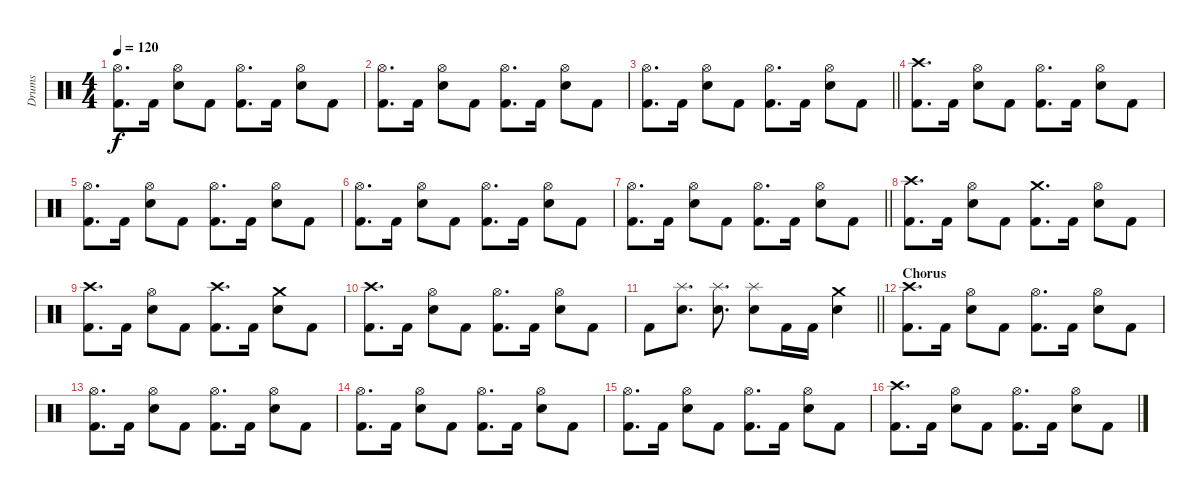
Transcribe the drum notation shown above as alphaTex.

\track ("Drums" "Drums") {instrument percussion}
\staff {score}
\articulation defaults
\ts (4 4)
\tempo 120
\clef neutral
\ks c
("Hi-Hat (open)" "Kick (hit) 2").8{d dy f} "Kick (hit) 2".16 ("Hi-Hat (open)" "Snare (hit) 2").8 "Kick (hit) 2".8 ("Hi-Hat (open)" "Kick (hit) 2").8{d} "Kick (hit) 2".16 ("Hi-Hat (open)" "Snare (hit) 2").8 "Kick (hit) 2".8 |
("Hi-Hat (open)" "Kick (hit) 2").8{d} "Kick (hit) 2".16 ("Hi-Hat (open)" "Snare (hit) 2").8 "Kick (hit) 2".8 ("Hi-Hat (open)" "Kick (hit) 2").8{d} "Kick (hit) 2".16 ("Hi-Hat (open)" "Snare (hit) 2").8 "Kick (hit) 2".8 |
\barLineRight lightlight
("Hi-Hat (open)" "Kick (hit) 2").8{d} "Kick (hit) 2".16 ("Hi-Hat (open)" "Snare (hit) 2").8 "Kick (hit) 2".8 ("Hi-Hat (open)" "Kick (hit) 2").8{d} "Kick (hit) 2".16 ("Hi-Hat (open)" "Snare (hit) 2").8 "Kick (hit) 2".8 |
("Crash high (hit)" "Kick (hit) 2").8{d} "Kick (hit) 2".16 ("Hi-Hat (open)" "Snare (hit) 2").8 "Kick (hit) 2".8 ("Hi-Hat (open)" "Kick (hit) 2").8{d} "Kick (hit) 2".16 ("Hi-Hat (open)" "Snare (hit) 2").8 "Kick (hit) 2".8 |
("Hi-Hat (open)" "Kick (hit) 2").8{d} "Kick (hit) 2".16 ("Hi-Hat (open)" "Snare (hit) 2").8 "Kick (hit) 2".8 ("Hi-Hat (open)" "Kick (hit) 2").8{d} "Kick (hit) 2".16 ("Hi-Hat (open)" "Snare (hit) 2").8 "Kick (hit) 2".8 |
("Hi-Hat (open)" "Kick (hit) 2").8{d} "Kick (hit) 2".16 ("Hi-Hat (open)" "Snare (hit) 2").8 "Kick (hit) 2".8 ("Hi-Hat (open)" "Kick (hit) 2").8{d} "Kick (hit) 2".16 ("Hi-Hat (open)" "Snare (hit) 2").8 "Kick (hit) 2".8 |
\barLineRight lightlight
("Hi-Hat (open)" "Kick (hit) 2").8{d} "Kick (hit) 2".16 ("Hi-Hat (open)" "Snare (hit) 2").8 "Kick (hit) 2".8 ("Hi-Hat (open)" "Kick (hit) 2").8{d} "Kick (hit) 2".16 ("Hi-Hat (open)" "Snare (hit) 2").8 "Kick (hit) 2".8 |
("Crash high (hit)" "Kick (hit) 2").8{d} "Kick (hit) 2".16 ("Hi-Hat (open)" "Snare (hit) 2").8 "Kick (hit) 2".8 ("Crash medium (hit)" "Kick (hit) 2").8{d} "Kick (hit) 2".16 ("Hi-Hat (open)" "Snare (hit) 2").8 "Kick (hit) 2".8 |
("Crash high (hit)" "Kick (hit) 2").8{d} "Kick (hit) 2".16 ("Hi-Hat (open)" "Snare (hit) 2").8 "Kick (hit) 2".8 ("Crash high (hit)" "Kick (hit) 2").8{d} "Kick (hit) 2".16 ("Crash medium (hit)" "Snare (hit) 2").8 "Kick (hit) 2".8 |
("Crash high (hit)" "Kick (hit) 2").8{d} "Kick (hit) 2".16 ("Hi-Hat (open)" "Snare (hit) 2").8 "Kick (hit) 2".8 ("Hi-Hat (open)" "Kick (hit) 2").8{d} "Kick (hit) 2".16 ("Hi-Hat (open)" "Snare (hit) 2").8 "Kick (hit) 2".8 |
\barLineRight lightlight "Kick (hit) 2".8
("Splash (hit)" "Snare (hit) 2").8{d} ("Splash (hit)" "Snare (hit) 2").8{d} ("Splash (hit)" "Snare (hit) 2").8 "Kick (hit) 2".16 "Kick (hit) 2".16 ("Crash medium (hit)" "Snare (hit) 2").4 |
\section ("" "Chorus")
("Crash high (hit)" "Kick (hit) 2").8{d} "Kick (hit) 2".16 ("Hi-Hat (open)" "Snare (hit) 2").8 "Kick (hit) 2".8 ("Hi-Hat (open)" "Kick (hit) 2").8{d} "Kick (hit) 2".16 ("Hi-Hat (open)" "Snare (hit) 2").8 "Kick (hit) 2".8 |
("Hi-Hat (open)" "Kick (hit) 2").8{d} "Kick (hit) 2".16 ("Hi-Hat (open)" "Snare (hit) 2").8 "Kick (hit) 2".8 ("Hi-Hat (open)" "Kick (hit) 2").8{d} "Kick (hit) 2".16 ("Hi-Hat (open)" "Snare (hit) 2").8 "Kick (hit) 2".8 |
("Hi-Hat (open)" "Kick (hit) 2").8{d} "Kick (hit) 2".16 ("Hi-Hat (open)" "Snare (hit) 2").8 "Kick (hit) 2".8 ("Hi-Hat (open)" "Kick (hit) 2").8{d} "Kick (hit) 2".16 ("Hi-Hat (open)" "Snare (hit) 2").8 "Kick (hit) 2".8 |
("Hi-Hat (open)" "Kick (hit) 2").8{d} "Kick (hit) 2".16 ("Hi-Hat (open)" "Snare (hit) 2").8 "Kick (hit) 2".8 ("Hi-Hat (open)" "Kick (hit) 2").8{d} "Kick (hit) 2".16 ("Hi-Hat (open)" "Snare (hit) 2").8 "Kick (hit) 2".8 |
("Crash high (hit)" "Kick (hit) 2").8{d} "Kick (hit) 2".16 ("Hi-Hat (open)" "Snare (hit) 2").8 "Kick (hit) 2".8 ("Hi-Hat (open)" "Kick (hit) 2").8{d} "Kick (hit) 2".16 ("Hi-Hat (open)" "Snare (hit) 2").8 "Kick (hit) 2".8
